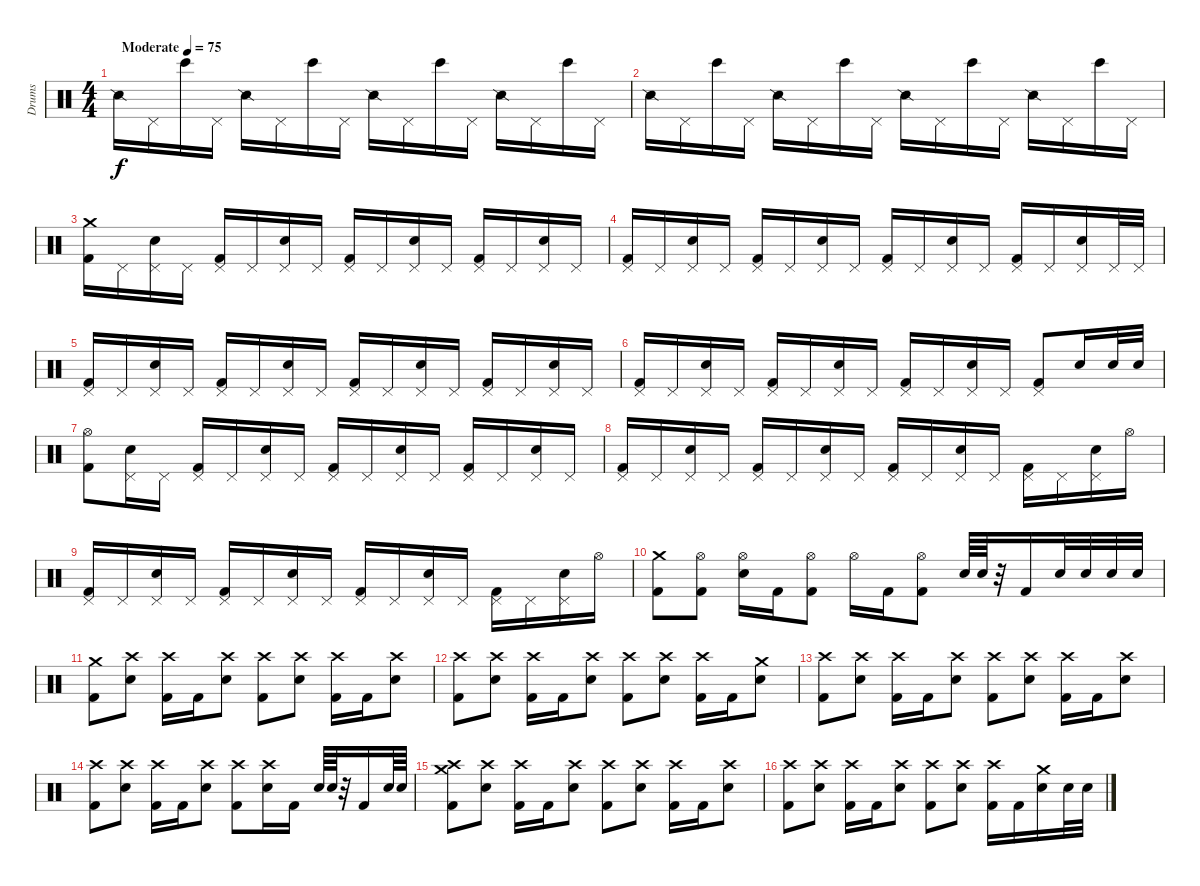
\track ("Drums" "Drums") {instrument percussion bank 34}
\staff {score}
\articulation defaults
\ts (4 4)
\tempo (75 "Moderate")
\clef neutral
\ks c "Snare (side stick) 2".16{dy f} "Pedal Hi-Hat (hit)".16 "Bongo High (hit)".16 "Pedal Hi-Hat (hit)".16 "Snare (side stick) 2".16 "Pedal Hi-Hat (hit)".16 "Bongo High (hit)".16 "Pedal Hi-Hat (hit)".16 "Snare (side stick) 2".16 "Pedal Hi-Hat (hit)".16 "Bongo High (hit)".16 "Pedal Hi-Hat (hit)".16 "Snare (side stick) 2".16 "Pedal Hi-Hat (hit)".16 "Bongo High (hit)".16 "Pedal Hi-Hat (hit)".16
|
"Snare (side stick) 2".16 "Pedal Hi-Hat (hit)".16 "Bongo High (hit)".16 "Pedal Hi-Hat (hit)".16 "Snare (side stick) 2".16 "Pedal Hi-Hat (hit)".16 "Bongo High (hit)".16 "Pedal Hi-Hat (hit)".16 "Snare (side stick) 2".16 "Pedal Hi-Hat (hit)".16 "Bongo High (hit)".16 "Pedal Hi-Hat (hit)".16 "Snare (side stick) 2".16 "Pedal Hi-Hat (hit)".16 "Bongo High (hit)".16 "Pedal Hi-Hat (hit)".16 |
("Crash medium (hit)" "Kick (hit) 2").16 "Pedal Hi-Hat (hit)".16 ("Pedal Hi-Hat (hit)" "Electric Snare (hit)").16 "Pedal Hi-Hat (hit)".16 ("Pedal Hi-Hat (hit)" "Kick (hit) 2").16 "Pedal Hi-Hat (hit)".16 ("Pedal Hi-Hat (hit)" "Electric Snare (hit)").16 "Pedal Hi-Hat (hit)".16 ("Pedal Hi-Hat (hit)" "Kick (hit) 2").16 "Pedal Hi-Hat (hit)".16 ("Pedal Hi-Hat (hit)" "Electric Snare (hit)").16 "Pedal Hi-Hat (hit)".16 ("Pedal Hi-Hat (hit)" "Kick (hit) 2").16 "Pedal Hi-Hat (hit)".16 ("Pedal Hi-Hat (hit)" "Electric Snare (hit)").16 "Pedal Hi-Hat (hit)".16 |
("Pedal Hi-Hat (hit)" "Kick (hit) 2").16 "Pedal Hi-Hat (hit)".16 ("Pedal Hi-Hat (hit)" "Electric Snare (hit)").16 "Pedal Hi-Hat (hit)".16 ("Pedal Hi-Hat (hit)" "Kick (hit) 2").16 "Pedal Hi-Hat (hit)".16 ("Pedal Hi-Hat (hit)" "Electric Snare (hit)").16 "Pedal Hi-Hat (hit)".16 ("Pedal Hi-Hat (hit)" "Kick (hit) 2").16 "Pedal Hi-Hat (hit)".16 ("Pedal Hi-Hat (hit)" "Electric Snare (hit)").16 "Pedal Hi-Hat (hit)".16 ("Pedal Hi-Hat (hit)" "Kick (hit) 2").16 "Pedal Hi-Hat (hit)".16 ("Pedal Hi-Hat (hit)" "Electric Snare (hit)").16 "Pedal Hi-Hat (hit)".32 "Pedal Hi-Hat (hit)".32 |
("Pedal Hi-Hat (hit)" "Kick (hit) 2").16 "Pedal Hi-Hat (hit)".16 ("Pedal Hi-Hat (hit)" "Electric Snare (hit)").16 "Pedal Hi-Hat (hit)".16 ("Pedal Hi-Hat (hit)" "Kick (hit) 2").16 "Pedal Hi-Hat (hit)".16 ("Pedal Hi-Hat (hit)" "Electric Snare (hit)").16 "Pedal Hi-Hat (hit)".16 ("Pedal Hi-Hat (hit)" "Kick (hit) 2").16 "Pedal Hi-Hat (hit)".16 ("Pedal Hi-Hat (hit)" "Electric Snare (hit)").16 "Pedal Hi-Hat (hit)".16 ("Pedal Hi-Hat (hit)" "Kick (hit) 2").16 "Pedal Hi-Hat (hit)".16 ("Pedal Hi-Hat (hit)" "Electric Snare (hit)").16 "Pedal Hi-Hat (hit)".16 |
("Pedal Hi-Hat (hit)" "Kick (hit) 2").16 "Pedal Hi-Hat (hit)".16 ("Pedal Hi-Hat (hit)" "Electric Snare (hit)").16 "Pedal Hi-Hat (hit)".16 ("Pedal Hi-Hat (hit)" "Kick (hit) 2").16 "Pedal Hi-Hat (hit)".16 ("Pedal Hi-Hat (hit)" "Electric Snare (hit)").16 "Pedal Hi-Hat (hit)".16 ("Pedal Hi-Hat (hit)" "Kick (hit) 2").16 "Pedal Hi-Hat (hit)".16 ("Pedal Hi-Hat (hit)" "Electric Snare (hit)").16 "Pedal Hi-Hat (hit)".16 ("Pedal Hi-Hat (hit)" "Kick (hit) 2").8 "Electric Snare (hit)".16 "Electric Snare (hit)".32 "Electric Snare (hit)".32 |
("Hi-Hat (open)" "Kick (hit) 2").8 ("Pedal Hi-Hat (hit)" "Electric Snare (hit)").16 "Pedal Hi-Hat (hit)".16 ("Pedal Hi-Hat (hit)" "Kick (hit) 2").16 "Pedal Hi-Hat (hit)".16 ("Pedal Hi-Hat (hit)" "Electric Snare (hit)").16 "Pedal Hi-Hat (hit)".16 ("Pedal Hi-Hat (hit)" "Kick (hit) 2").16 "Pedal Hi-Hat (hit)".16 ("Pedal Hi-Hat (hit)" "Electric Snare (hit)").16 "Pedal Hi-Hat (hit)".16 ("Pedal Hi-Hat (hit)" "Kick (hit) 2").16 "Pedal Hi-Hat (hit)".16 ("Pedal Hi-Hat (hit)" "Electric Snare (hit)").16 "Pedal Hi-Hat (hit)".16 |
("Pedal Hi-Hat (hit)" "Kick (hit) 2").16 "Pedal Hi-Hat (hit)".16 ("Pedal Hi-Hat (hit)" "Electric Snare (hit)").16 "Pedal Hi-Hat (hit)".16 ("Pedal Hi-Hat (hit)" "Kick (hit) 2").16 "Pedal Hi-Hat (hit)".16 ("Pedal Hi-Hat (hit)" "Electric Snare (hit)").16 "Pedal Hi-Hat (hit)".16 ("Pedal Hi-Hat (hit)" "Kick (hit) 2").16 "Pedal Hi-Hat (hit)".16 ("Pedal Hi-Hat (hit)" "Electric Snare (hit)").16 "Pedal Hi-Hat (hit)".16 ("Pedal Hi-Hat (hit)" "Kick (hit) 2").16 "Pedal Hi-Hat (hit)".16 ("Pedal Hi-Hat (hit)" "Electric Snare (hit)").16 "Hi-Hat (open)".16 |
("Pedal Hi-Hat (hit)" "Kick (hit) 2").16 "Pedal Hi-Hat (hit)".16 ("Pedal Hi-Hat (hit)" "Electric Snare (hit)").16 "Pedal Hi-Hat (hit)".16 ("Pedal Hi-Hat (hit)" "Kick (hit) 2").16 "Pedal Hi-Hat (hit)".16 ("Pedal Hi-Hat (hit)" "Electric Snare (hit)").16 "Pedal Hi-Hat (hit)".16 ("Pedal Hi-Hat (hit)" "Kick (hit) 2").16 "Pedal Hi-Hat (hit)".16 ("Pedal Hi-Hat (hit)" "Electric Snare (hit)").16 "Pedal Hi-Hat (hit)".16 ("Pedal Hi-Hat (hit)" "Kick (hit) 2").16 "Pedal Hi-Hat (hit)".16 ("Pedal Hi-Hat (hit)" "Electric Snare (hit)").16 "Hi-Hat (open)".16 |
("Crash medium (hit)" "Kick (hit) 2").8 ("Hi-Hat (open)" "Kick (hit) 2").8 ("Hi-Hat (open)" "Electric Snare (hit)").16 "Kick (hit) 2".16 ("Hi-Hat (open)" "Kick (hit) 2").8 "Hi-Hat (open)".16 "Kick (hit) 2".16 ("Hi-Hat (open)" "Kick (hit) 2").8 "Electric Snare (hit)".64 "Electric Snare (hit)".64 r.32 "Kick (hit) 2".16 "Electric Snare (hit)".32 "Electric Snare (hit)".32 "Electric Snare (hit)".32 "Electric Snare (hit)".32 |
("Crash medium (hit)" "Kick (hit) 2").8 ("Crash high (hit)" "Electric Snare (hit)").8 ("Crash high (hit)" "Kick (hit) 2").16 "Kick (hit) 2".16 ("Crash high (hit)" "Electric Snare (hit)").8 ("Crash high (hit)" "Kick (hit) 2").8 ("Crash high (hit)" "Electric Snare (hit)").8 ("Crash high (hit)" "Kick (hit) 2").16 "Kick (hit) 2".16 ("Crash high (hit)" "Electric Snare (hit)").8 |
("Crash high (hit)" "Kick (hit) 2").8 ("Crash high (hit)" "Electric Snare (hit)").8 ("Crash high (hit)" "Kick (hit) 2").16 "Kick (hit) 2".16 ("Crash high (hit)" "Electric Snare (hit)").8 ("Crash high (hit)" "Kick (hit) 2").8 ("Crash high (hit)" "Electric Snare (hit)").8 ("Crash high (hit)" "Kick (hit) 2").16 "Kick (hit) 2".16 ("Crash medium (hit)" "Electric Snare (hit)").8 |
("Crash high (hit)" "Kick (hit) 2").8 ("Crash high (hit)" "Electric Snare (hit)").8 ("Crash high (hit)" "Kick (hit) 2").16 "Kick (hit) 2".16 ("Crash high (hit)" "Electric Snare (hit)").8 ("Crash high (hit)" "Kick (hit) 2").8 ("Crash high (hit)" "Electric Snare (hit)").8 ("Crash high (hit)" "Kick (hit) 2").16 "Kick (hit) 2".16 ("Crash high (hit)" "Electric Snare (hit)").8 |
("Crash high (hit)" "Kick (hit) 2").8 ("Crash high (hit)" "Electric Snare (hit)").8 ("Crash high (hit)" "Kick (hit) 2").16 "Kick (hit) 2".16 ("Crash high (hit)" "Electric Snare (hit)").8 ("Crash high (hit)" "Kick (hit) 2").8 ("Crash high (hit)" "Electric Snare (hit)").16 "Kick (hit) 2".16 "Electric Snare (hit)".64 "Electric Snare (hit)".64 r.32 "Kick (hit) 2".16 "Electric Snare (hit)".64 "Electric Snare (hit)".64 |
("Crash medium (hit)" "Crash high (hit)" "Kick (hit) 2").8 ("Crash high (hit)" "Electric Snare (hit)").8 ("Crash high (hit)" "Kick (hit) 2").16 "Kick (hit) 2".16 ("Crash high (hit)" "Electric Snare (hit)").8 ("Crash high (hit)" "Kick (hit) 2").8 ("Crash high (hit)" "Electric Snare (hit)").8 ("Crash high (hit)" "Kick (hit) 2").16 "Kick (hit) 2".16 ("Crash high (hit)" "Electric Snare (hit)").8 |
("Crash high (hit)" "Kick (hit) 2").8 ("Crash high (hit)" "Electric Snare (hit)").8 ("Crash high (hit)" "Kick (hit) 2").16 "Kick (hit) 2".16 ("Crash high (hit)" "Electric Snare (hit)").8 ("Crash high (hit)" "Kick (hit) 2").8 ("Crash high (hit)" "Electric Snare (hit)").8 ("Crash high (hit)" "Kick (hit) 2").16 "Kick (hit) 2".16 ("Crash medium (hit)" "Electric Snare (hit)").16 "Electric Snare (hit)".32 "Electric Snare (hit)".32
